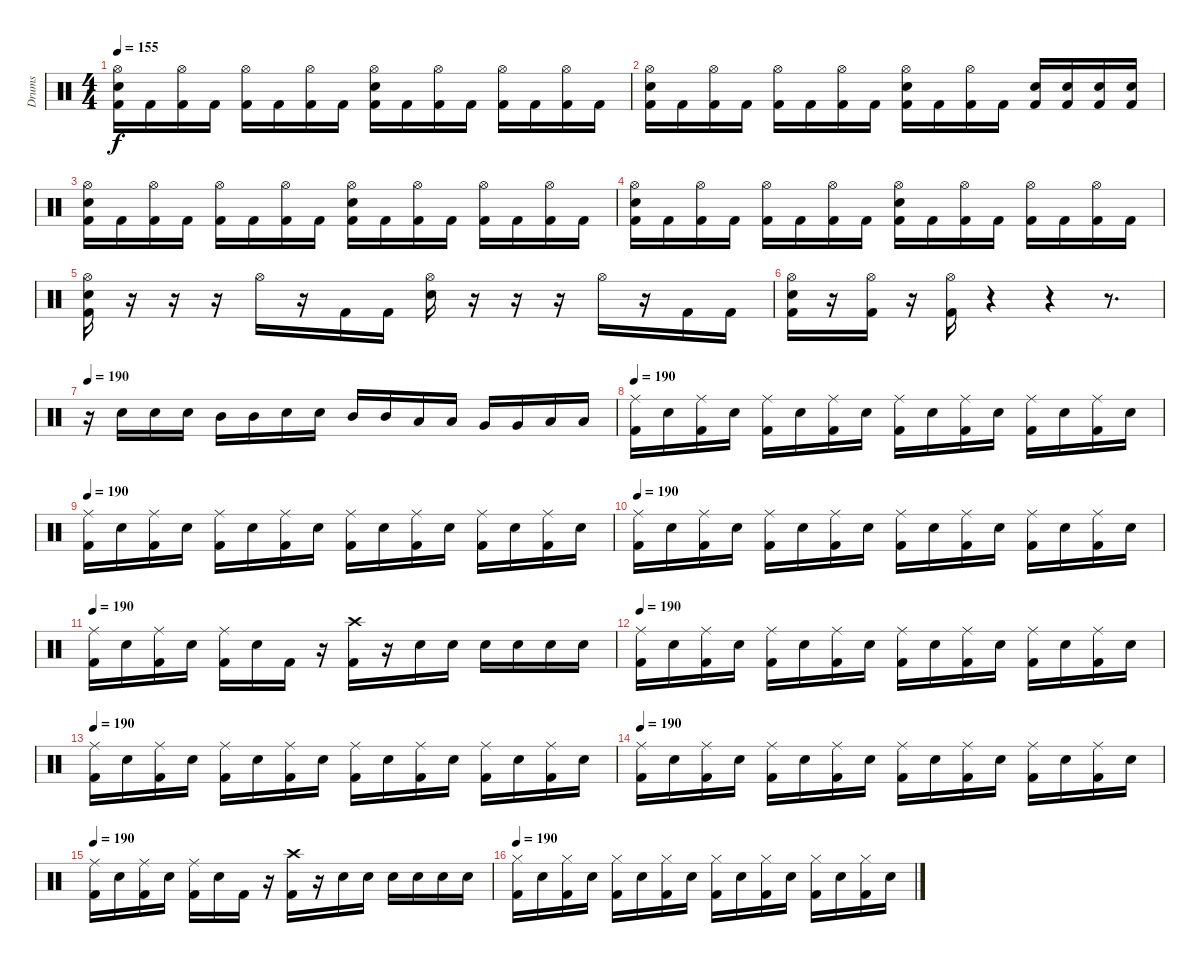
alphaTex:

\track ("Drums" "Drums") {instrument percussion}
\staff {score}
\articulation defaults
\ts (4 4)
\tempo 155
\clef neutral
\ks c
("Hi-Hat (open)" "Electric Snare (hit)" "Kick (hit) 2").16{dy f} "Kick (hit) 2".16 ("Hi-Hat (open)" "Kick (hit) 2").16 "Kick (hit) 2".16 ("Hi-Hat (open)" "Kick (hit) 2").16 "Kick (hit) 2".16 ("Hi-Hat (open)" "Kick (hit) 2").16 "Kick (hit) 2".16 ("Hi-Hat (open)" "Electric Snare (hit)" "Kick (hit) 2").16 "Kick (hit) 2".16 ("Hi-Hat (open)" "Kick (hit) 2").16 "Kick (hit) 2".16 ("Hi-Hat (open)" "Kick (hit) 2").16 "Kick (hit) 2".16 ("Hi-Hat (open)" "Kick (hit) 2").16 "Kick (hit) 2".16 |
("Hi-Hat (open)" "Electric Snare (hit)" "Kick (hit) 2").16 "Kick (hit) 2".16 ("Hi-Hat (open)" "Kick (hit) 2").16 "Kick (hit) 2".16 ("Hi-Hat (open)" "Kick (hit) 2").16 "Kick (hit) 2".16 ("Hi-Hat (open)" "Kick (hit) 2").16 "Kick (hit) 2".16 ("Hi-Hat (open)" "Electric Snare (hit)" "Kick (hit) 2").16 "Kick (hit) 2".16 ("Hi-Hat (open)" "Kick (hit) 2").16 "Kick (hit) 2".16 ("Electric Snare (hit)" "Kick (hit) 2").16 ("Electric Snare (hit)" "Kick (hit) 2").16 ("Electric Snare (hit)" "Kick (hit) 2").16 ("Electric Snare (hit)" "Kick (hit) 2").16 |
("Hi-Hat (open)" "Electric Snare (hit)" "Kick (hit) 2").16 "Kick (hit) 2".16 ("Hi-Hat (open)" "Kick (hit) 2").16 "Kick (hit) 2".16 ("Hi-Hat (open)" "Kick (hit) 2").16 "Kick (hit) 2".16 ("Hi-Hat (open)" "Kick (hit) 2").16 "Kick (hit) 2".16 ("Hi-Hat (open)" "Electric Snare (hit)" "Kick (hit) 2").16 "Kick (hit) 2".16 ("Hi-Hat (open)" "Kick (hit) 2").16 "Kick (hit) 2".16 ("Hi-Hat (open)" "Kick (hit) 2").16 "Kick (hit) 2".16 ("Hi-Hat (open)" "Kick (hit) 2").16 "Kick (hit) 2".16 |
("Hi-Hat (open)" "Electric Snare (hit)" "Kick (hit) 2").16 "Kick (hit) 2".16 ("Hi-Hat (open)" "Kick (hit) 2").16 "Kick (hit) 2".16 ("Hi-Hat (open)" "Kick (hit) 2").16 "Kick (hit) 2".16 ("Hi-Hat (open)" "Kick (hit) 2").16 "Kick (hit) 2".16 ("Hi-Hat (open)" "Electric Snare (hit)" "Kick (hit) 2").16 "Kick (hit) 2".16 ("Hi-Hat (open)" "Kick (hit) 2").16 "Kick (hit) 2".16 ("Hi-Hat (open)" "Kick (hit) 2").16 "Kick (hit) 2".16 ("Hi-Hat (open)" "Kick (hit) 2").16 "Kick (hit) 2".16 |
("Hi-Hat (open)" "Electric Snare (hit)" "Kick (hit) 2").16 r.16 r.16 r.16 "Hi-Hat (open)".16 r.16 "Kick (hit) 2".16 "Kick (hit) 2".16 ("Hi-Hat (open)" "Electric Snare (hit)").16 r.16 r.16 r.16 "Hi-Hat (open)".16 r.16 "Kick (hit) 2".16 "Kick (hit) 2".16 |
("Hi-Hat (open)" "Electric Snare (hit)" "Kick (hit) 2").16 r.16 ("Hi-Hat (open)" "Kick (hit) 2").16 r.16 ("Hi-Hat (open)" "Kick (hit) 2").16 r.4 r.4 r.8{d} |
\tempo 190
r.16 "Electric Snare (hit)".16 "Electric Snare (hit)".16 "Electric Snare (hit)".16 "Mid Tom (hit)".16 "Mid Tom (hit)".16 "Electric Snare (hit)".16 "Electric Snare (hit)".16 "Mid Tom (hit)".16 "Mid Tom (hit)".16 "Low Tom (hit)".16 "Low Tom (hit)".16 "Very Low Tom (hit)".16 "Very Low Tom (hit)".16 "Low Floor Tom (hit)".16 "Low Floor Tom (hit)".16 |
\tempo 190
("Ride (middle)" "Kick (hit) 2").16 "Electric Snare (hit)".16 ("Ride (middle)" "Kick (hit) 2").16 "Electric Snare (hit)".16 ("Ride (middle)" "Kick (hit) 2").16 "Electric Snare (hit)".16 ("Ride (middle)" "Kick (hit) 2").16 "Electric Snare (hit)".16 ("Ride (middle)" "Kick (hit) 2").16 "Electric Snare (hit)".16 ("Ride (middle)" "Kick (hit) 2").16 "Electric Snare (hit)".16 ("Ride (middle)" "Kick (hit) 2").16 "Electric Snare (hit)".16 ("Ride (middle)" "Kick (hit) 2").16 "Electric Snare (hit)".16 |
\tempo 190
("Ride (middle)" "Kick (hit) 2").16 "Electric Snare (hit)".16 ("Ride (middle)" "Kick (hit) 2").16 "Electric Snare (hit)".16 ("Ride (middle)" "Kick (hit) 2").16 "Electric Snare (hit)".16 ("Ride (middle)" "Kick (hit) 2").16 "Electric Snare (hit)".16 ("Ride (middle)" "Kick (hit) 2").16 "Electric Snare (hit)".16 ("Ride (middle)" "Kick (hit) 2").16 "Electric Snare (hit)".16 ("Ride (middle)" "Kick (hit) 2").16 "Electric Snare (hit)".16 ("Ride (middle)" "Kick (hit) 2").16 "Electric Snare (hit)".16 |
\tempo 190
("Ride (middle)" "Kick (hit) 2").16 "Electric Snare (hit)".16 ("Ride (middle)" "Kick (hit) 2").16 "Electric Snare (hit)".16 ("Ride (middle)" "Kick (hit) 2").16 "Electric Snare (hit)".16 ("Ride (middle)" "Kick (hit) 2").16 "Electric Snare (hit)".16 ("Ride (middle)" "Kick (hit) 2").16 "Electric Snare (hit)".16 ("Ride (middle)" "Kick (hit) 2").16 "Electric Snare (hit)".16 ("Ride (middle)" "Kick (hit) 2").16 "Electric Snare (hit)".16 ("Ride (middle)" "Kick (hit) 2").16 "Electric Snare (hit)".16 |
\tempo 190
("Ride (middle)" "Kick (hit) 2").16 "Electric Snare (hit)".16 ("Ride (middle)" "Kick (hit) 2").16 "Electric Snare (hit)".16 ("Ride (middle)" "Kick (hit) 2").16 "Electric Snare (hit)".16 "Kick (hit) 2".16 r.16 ("Crash high (hit)" "Kick (hit) 2").16 r.16 "Electric Snare (hit)".16 "Electric Snare (hit)".16 "Electric Snare (hit)".16 "Electric Snare (hit)".16 "Electric Snare (hit)".16 "Electric Snare (hit)".16 |
\tempo 190
("Ride (middle)" "Kick (hit) 2").16 "Electric Snare (hit)".16 ("Ride (middle)" "Kick (hit) 2").16 "Electric Snare (hit)".16 ("Ride (middle)" "Kick (hit) 2").16 "Electric Snare (hit)".16 ("Ride (middle)" "Kick (hit) 2").16 "Electric Snare (hit)".16 ("Ride (middle)" "Kick (hit) 2").16 "Electric Snare (hit)".16 ("Ride (middle)" "Kick (hit) 2").16 "Electric Snare (hit)".16 ("Ride (middle)" "Kick (hit) 2").16 "Electric Snare (hit)".16 ("Ride (middle)" "Kick (hit) 2").16 "Electric Snare (hit)".16 |
\tempo 190
("Ride (middle)" "Kick (hit) 2").16 "Electric Snare (hit)".16 ("Ride (middle)" "Kick (hit) 2").16 "Electric Snare (hit)".16 ("Ride (middle)" "Kick (hit) 2").16 "Electric Snare (hit)".16 ("Ride (middle)" "Kick (hit) 2").16 "Electric Snare (hit)".16 ("Ride (middle)" "Kick (hit) 2").16 "Electric Snare (hit)".16 ("Ride (middle)" "Kick (hit) 2").16 "Electric Snare (hit)".16 ("Ride (middle)" "Kick (hit) 2").16 "Electric Snare (hit)".16 ("Ride (middle)" "Kick (hit) 2").16 "Electric Snare (hit)".16 |
\tempo 190
("Ride (middle)" "Kick (hit) 2").16 "Electric Snare (hit)".16 ("Ride (middle)" "Kick (hit) 2").16 "Electric Snare (hit)".16 ("Ride (middle)" "Kick (hit) 2").16 "Electric Snare (hit)".16 ("Ride (middle)" "Kick (hit) 2").16 "Electric Snare (hit)".16 ("Ride (middle)" "Kick (hit) 2").16 "Electric Snare (hit)".16 ("Ride (middle)" "Kick (hit) 2").16 "Electric Snare (hit)".16 ("Ride (middle)" "Kick (hit) 2").16 "Electric Snare (hit)".16 ("Ride (middle)" "Kick (hit) 2").16 "Electric Snare (hit)".16 |
\tempo 190
("Ride (middle)" "Kick (hit) 2").16 "Electric Snare (hit)".16 ("Ride (middle)" "Kick (hit) 2").16 "Electric Snare (hit)".16 ("Ride (middle)" "Kick (hit) 2").16 "Electric Snare (hit)".16 "Kick (hit) 2".16 r.16 ("Crash high (hit)" "Kick (hit) 2").16 r.16 "Electric Snare (hit)".16 "Electric Snare (hit)".16 "Electric Snare (hit)".16 "Electric Snare (hit)".16 "Electric Snare (hit)".16 "Electric Snare (hit)".16 |
\tempo 190
("Hi-Hat (closed)" "Kick (hit) 2").16 "Electric Snare (hit)".16 ("Hi-Hat (closed)" "Kick (hit) 2").16 "Electric Snare (hit)".16 ("Hi-Hat (closed)" "Kick (hit) 2").16 "Electric Snare (hit)".16 ("Hi-Hat (closed)" "Kick (hit) 2").16 "Electric Snare (hit)".16 ("Hi-Hat (closed)" "Kick (hit) 2").16 "Electric Snare (hit)".16 ("Hi-Hat (closed)" "Kick (hit) 2").16 "Electric Snare (hit)".16 ("Hi-Hat (closed)" "Kick (hit) 2").16 "Electric Snare (hit)".16 ("Hi-Hat (closed)" "Kick (hit) 2").16 "Electric Snare (hit)".16
